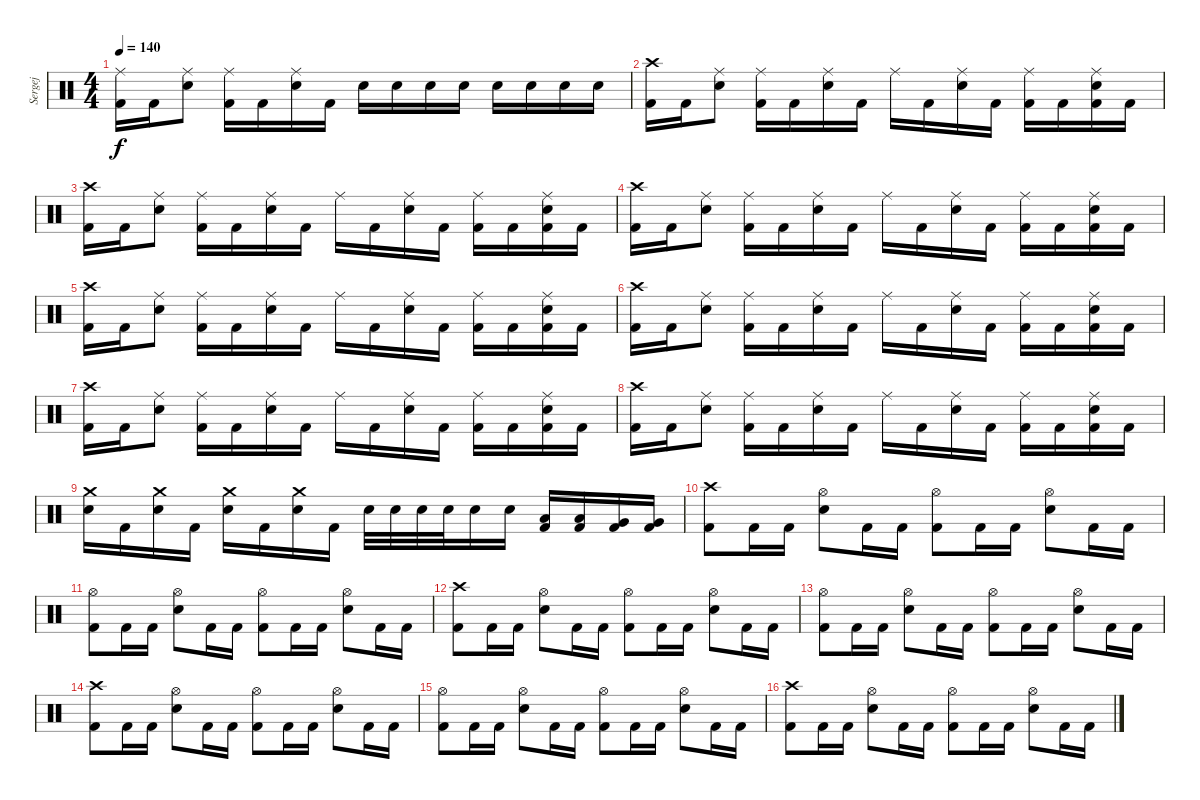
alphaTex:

\track ("Sergej" "Sergej") {instrument percussion}
\staff {score}
\articulation defaults
\ts (4 4)
\tempo 140
\clef neutral
\ks c
("Ride (middle)" "Kick (hit) 2").16{dy f} "Kick (hit) 2".16 ("Ride (middle)" "Snare (hit) 2").8 ("Ride (middle)" "Kick (hit) 2").16 "Kick (hit) 2".16 ("Ride (middle)" "Snare (hit) 2").16 "Kick (hit) 2".16 "Snare (hit) 2".16 "Snare (hit) 2".16 "Snare (hit) 2".16 "Snare (hit) 2".16 "Snare (hit) 2".16 "Snare (hit) 2".16 "Snare (hit) 2".16 "Snare (hit) 2".16 |
("Crash high (hit)" "Kick (hit) 2").16 "Kick (hit) 2".16 ("Ride (middle)" "Snare (hit) 2").8 ("Ride (middle)" "Kick (hit) 2").16 "Kick (hit) 2".16 ("Ride (middle)" "Snare (hit) 2").16 "Kick (hit) 2".16 "Ride (middle)".16 "Kick (hit) 2".16 ("Ride (middle)" "Snare (hit) 2").16 "Kick (hit) 2".16 ("Ride (middle)" "Kick (hit) 2").16 "Kick (hit) 2".16 ("Ride (middle)" "Snare (hit) 2" "Kick (hit) 2").16 "Kick (hit) 2".16 |
("Crash high (hit)" "Kick (hit) 2").16 "Kick (hit) 2".16 ("Ride (middle)" "Snare (hit) 2").8 ("Ride (middle)" "Kick (hit) 2").16 "Kick (hit) 2".16 ("Ride (middle)" "Snare (hit) 2").16 "Kick (hit) 2".16 "Ride (middle)".16 "Kick (hit) 2".16 ("Ride (middle)" "Snare (hit) 2").16 "Kick (hit) 2".16 ("Ride (middle)" "Kick (hit) 2").16 "Kick (hit) 2".16 ("Ride (middle)" "Snare (hit) 2" "Kick (hit) 2").16 "Kick (hit) 2".16 |
("Crash high (hit)" "Kick (hit) 2").16 "Kick (hit) 2".16 ("Ride (middle)" "Snare (hit) 2").8 ("Ride (middle)" "Kick (hit) 2").16 "Kick (hit) 2".16 ("Ride (middle)" "Snare (hit) 2").16 "Kick (hit) 2".16 "Ride (middle)".16 "Kick (hit) 2".16 ("Ride (middle)" "Snare (hit) 2").16 "Kick (hit) 2".16 ("Ride (middle)" "Kick (hit) 2").16 "Kick (hit) 2".16 ("Ride (middle)" "Snare (hit) 2" "Kick (hit) 2").16 "Kick (hit) 2".16 |
("Crash high (hit)" "Kick (hit) 2").16 "Kick (hit) 2".16 ("Ride (middle)" "Snare (hit) 2").8 ("Ride (middle)" "Kick (hit) 2").16 "Kick (hit) 2".16 ("Ride (middle)" "Snare (hit) 2").16 "Kick (hit) 2".16 "Ride (middle)".16 "Kick (hit) 2".16 ("Ride (middle)" "Snare (hit) 2").16 "Kick (hit) 2".16 ("Ride (middle)" "Kick (hit) 2").16 "Kick (hit) 2".16 ("Ride (middle)" "Snare (hit) 2" "Kick (hit) 2").16 "Kick (hit) 2".16 |
("Crash high (hit)" "Kick (hit) 2").16 "Kick (hit) 2".16 ("Ride (middle)" "Snare (hit) 2").8 ("Ride (middle)" "Kick (hit) 2").16 "Kick (hit) 2".16 ("Ride (middle)" "Snare (hit) 2").16 "Kick (hit) 2".16 "Ride (middle)".16 "Kick (hit) 2".16 ("Ride (middle)" "Snare (hit) 2").16 "Kick (hit) 2".16 ("Ride (middle)" "Kick (hit) 2").16 "Kick (hit) 2".16 ("Ride (middle)" "Snare (hit) 2" "Kick (hit) 2").16 "Kick (hit) 2".16 |
("Crash high (hit)" "Kick (hit) 2").16 "Kick (hit) 2".16 ("Ride (middle)" "Snare (hit) 2").8 ("Ride (middle)" "Kick (hit) 2").16 "Kick (hit) 2".16 ("Ride (middle)" "Snare (hit) 2").16 "Kick (hit) 2".16 "Ride (middle)".16 "Kick (hit) 2".16 ("Ride (middle)" "Snare (hit) 2").16 "Kick (hit) 2".16 ("Ride (middle)" "Kick (hit) 2").16 "Kick (hit) 2".16 ("Ride (middle)" "Snare (hit) 2" "Kick (hit) 2").16 "Kick (hit) 2".16 |
("Crash high (hit)" "Kick (hit) 2").16 "Kick (hit) 2".16 ("Ride (middle)" "Snare (hit) 2").8 ("Ride (middle)" "Kick (hit) 2").16 "Kick (hit) 2".16 ("Ride (middle)" "Snare (hit) 2").16 "Kick (hit) 2".16 "Ride (middle)".16 "Kick (hit) 2".16 ("Ride (middle)" "Snare (hit) 2").16 "Kick (hit) 2".16 ("Ride (middle)" "Kick (hit) 2").16 "Kick (hit) 2".16 ("Ride (middle)" "Snare (hit) 2" "Kick (hit) 2").16 "Kick (hit) 2".16 |
("Crash medium (hit)" "Snare (hit) 2").16 "Kick (hit) 2".16 ("Crash medium (hit)" "Snare (hit) 2").16 "Kick (hit) 2".16 ("Crash medium (hit)" "Snare (hit) 2").16 "Kick (hit) 2".16 ("Crash medium (hit)" "Snare (hit) 2").16 "Kick (hit) 2".16 "Snare (hit) 2".32 "Snare (hit) 2".32 "Snare (hit) 2".32 "Snare (hit) 2".32 "Snare (hit) 2".16 "Snare (hit) 2".16 ("Kick (hit) 2" "Low Tom (hit)").16 ("Kick (hit) 2" "Low Tom (hit)").16 ("Kick (hit) 2" "Very Low Tom (hit)").16 ("Kick (hit) 2" "Very Low Tom (hit)").16 |
("Crash high (hit)" "Kick (hit) 2").8 "Kick (hit) 2".16 "Kick (hit) 2".16 ("Hi-Hat (open)" "Snare (hit) 2").8 "Kick (hit) 2".16 "Kick (hit) 2".16 ("Hi-Hat (open)" "Kick (hit) 2").8 "Kick (hit) 2".16 "Kick (hit) 2".16 ("Hi-Hat (open)" "Snare (hit) 2").8 "Kick (hit) 2".16 "Kick (hit) 2".16 |
("Hi-Hat (open)" "Kick (hit) 2").8 "Kick (hit) 2".16 "Kick (hit) 2".16 ("Hi-Hat (open)" "Snare (hit) 2").8 "Kick (hit) 2".16 "Kick (hit) 2".16 ("Hi-Hat (open)" "Kick (hit) 2").8 "Kick (hit) 2".16 "Kick (hit) 2".16 ("Hi-Hat (open)" "Snare (hit) 2").8 "Kick (hit) 2".16 "Kick (hit) 2".16 |
("Crash high (hit)" "Kick (hit) 2").8 "Kick (hit) 2".16 "Kick (hit) 2".16 ("Hi-Hat (open)" "Snare (hit) 2").8 "Kick (hit) 2".16 "Kick (hit) 2".16 ("Hi-Hat (open)" "Kick (hit) 2").8 "Kick (hit) 2".16 "Kick (hit) 2".16 ("Hi-Hat (open)" "Snare (hit) 2").8 "Kick (hit) 2".16 "Kick (hit) 2".16 |
("Hi-Hat (open)" "Kick (hit) 2").8 "Kick (hit) 2".16 "Kick (hit) 2".16 ("Hi-Hat (open)" "Snare (hit) 2").8 "Kick (hit) 2".16 "Kick (hit) 2".16 ("Hi-Hat (open)" "Kick (hit) 2").8 "Kick (hit) 2".16 "Kick (hit) 2".16 ("Hi-Hat (open)" "Snare (hit) 2").8 "Kick (hit) 2".16 "Kick (hit) 2".16 |
("Crash high (hit)" "Kick (hit) 2").8 "Kick (hit) 2".16 "Kick (hit) 2".16 ("Hi-Hat (open)" "Snare (hit) 2").8 "Kick (hit) 2".16 "Kick (hit) 2".16 ("Hi-Hat (open)" "Kick (hit) 2").8 "Kick (hit) 2".16 "Kick (hit) 2".16 ("Hi-Hat (open)" "Snare (hit) 2").8 "Kick (hit) 2".16 "Kick (hit) 2".16 |
("Hi-Hat (open)" "Kick (hit) 2").8 "Kick (hit) 2".16 "Kick (hit) 2".16 ("Hi-Hat (open)" "Snare (hit) 2").8 "Kick (hit) 2".16 "Kick (hit) 2".16 ("Hi-Hat (open)" "Kick (hit) 2").8 "Kick (hit) 2".16 "Kick (hit) 2".16 ("Hi-Hat (open)" "Snare (hit) 2").8 "Kick (hit) 2".16 "Kick (hit) 2".16 |
("Crash high (hit)" "Kick (hit) 2").8 "Kick (hit) 2".16 "Kick (hit) 2".16 ("Hi-Hat (open)" "Snare (hit) 2").8 "Kick (hit) 2".16 "Kick (hit) 2".16 ("Hi-Hat (open)" "Kick (hit) 2").8 "Kick (hit) 2".16 "Kick (hit) 2".16 ("Hi-Hat (open)" "Snare (hit) 2").8 "Kick (hit) 2".16 "Kick (hit) 2".16
